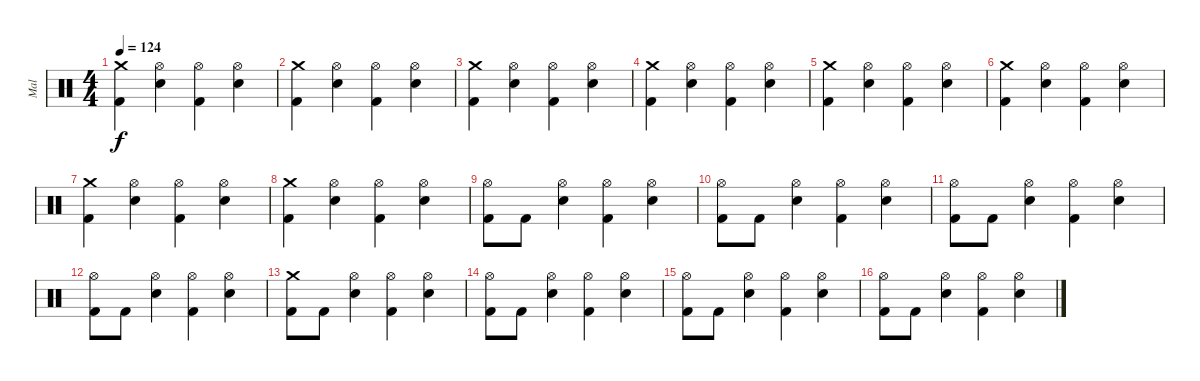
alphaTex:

\track ("Mal" "Mal") {instrument percussion}
\staff {score}
\articulation defaults
\ts (4 4)
\tempo 124
\clef neutral
\ks c
("Crash medium (hit)" "Kick (hit) 2").4{dy f} ("Hi-Hat (open)" "Electric Snare (hit)").4 ("Hi-Hat (open)" "Kick (hit) 2").4 ("Hi-Hat (open)" "Electric Snare (hit)").4 |
("Crash medium (hit)" "Kick (hit) 2").4 ("Hi-Hat (open)" "Electric Snare (hit)").4 ("Hi-Hat (open)" "Kick (hit) 2").4 ("Hi-Hat (open)" "Electric Snare (hit)").4 |
("Crash medium (hit)" "Kick (hit) 2").4 ("Hi-Hat (open)" "Electric Snare (hit)").4 ("Hi-Hat (open)" "Kick (hit) 2").4 ("Hi-Hat (open)" "Electric Snare (hit)").4 |
("Crash medium (hit)" "Kick (hit) 2").4 ("Hi-Hat (open)" "Electric Snare (hit)").4 ("Hi-Hat (open)" "Kick (hit) 2").4 ("Hi-Hat (open)" "Electric Snare (hit)").4 |
("Crash medium (hit)" "Kick (hit) 2").4 ("Hi-Hat (open)" "Electric Snare (hit)").4 ("Hi-Hat (open)" "Kick (hit) 2").4 ("Hi-Hat (open)" "Electric Snare (hit)").4 |
("Crash medium (hit)" "Kick (hit) 2").4 ("Hi-Hat (open)" "Electric Snare (hit)").4 ("Hi-Hat (open)" "Kick (hit) 2").4 ("Hi-Hat (open)" "Electric Snare (hit)").4 |
("Crash medium (hit)" "Kick (hit) 2").4 ("Hi-Hat (open)" "Electric Snare (hit)").4 ("Hi-Hat (open)" "Kick (hit) 2").4 ("Hi-Hat (open)" "Electric Snare (hit)").4 |
("Crash medium (hit)" "Kick (hit) 2").4 ("Hi-Hat (open)" "Electric Snare (hit)").4 ("Hi-Hat (open)" "Kick (hit) 2").4 ("Hi-Hat (open)" "Electric Snare (hit)").4 |
("Hi-Hat (open)" "Kick (hit) 2").8 "Kick (hit) 2".8 ("Hi-Hat (open)" "Electric Snare (hit)").4 ("Hi-Hat (open)" "Kick (hit) 2").4 ("Hi-Hat (open)" "Electric Snare (hit)").4 |
("Hi-Hat (open)" "Kick (hit) 2").8 "Kick (hit) 2".8 ("Hi-Hat (open)" "Electric Snare (hit)").4 ("Hi-Hat (open)" "Kick (hit) 2").4 ("Hi-Hat (open)" "Electric Snare (hit)").4 |
("Hi-Hat (open)" "Kick (hit) 2").8 "Kick (hit) 2".8 ("Hi-Hat (open)" "Electric Snare (hit)").4 ("Hi-Hat (open)" "Kick (hit) 2").4 ("Hi-Hat (open)" "Electric Snare (hit)").4 |
("Hi-Hat (open)" "Kick (hit) 2").8 "Kick (hit) 2".8 ("Hi-Hat (open)" "Electric Snare (hit)").4 ("Hi-Hat (open)" "Kick (hit) 2").4 ("Hi-Hat (open)" "Electric Snare (hit)").4 |
("Crash medium (hit)" "Kick (hit) 2").8 "Kick (hit) 2".8 ("Hi-Hat (open)" "Electric Snare (hit)").4 ("Hi-Hat (open)" "Kick (hit) 2").4 ("Hi-Hat (open)" "Electric Snare (hit)").4 |
("Hi-Hat (open)" "Kick (hit) 2").8 "Kick (hit) 2".8 ("Hi-Hat (open)" "Electric Snare (hit)").4 ("Hi-Hat (open)" "Kick (hit) 2").4 ("Hi-Hat (open)" "Electric Snare (hit)").4 |
("Hi-Hat (open)" "Kick (hit) 2").8 "Kick (hit) 2".8 ("Hi-Hat (open)" "Electric Snare (hit)").4 ("Hi-Hat (open)" "Kick (hit) 2").4 ("Hi-Hat (open)" "Electric Snare (hit)").4 |
("Hi-Hat (open)" "Kick (hit) 2").8 "Kick (hit) 2".8 ("Hi-Hat (open)" "Electric Snare (hit)").4 ("Hi-Hat (open)" "Kick (hit) 2").4 ("Hi-Hat (open)" "Electric Snare (hit)").4
